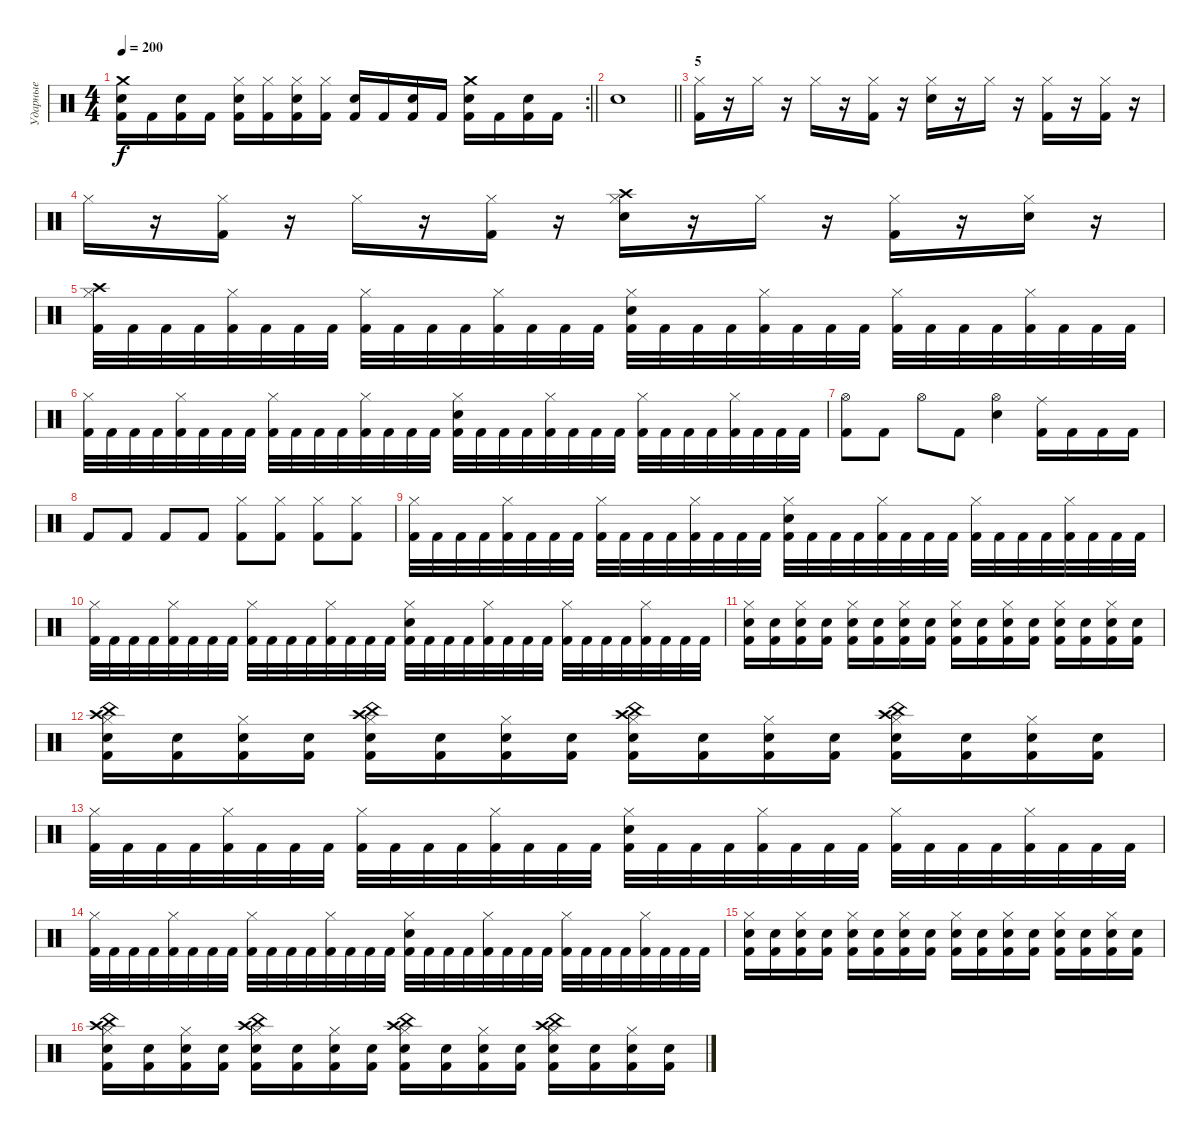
\track ("Ударные" "Ударные") {instrument percussion}
\staff {score}
\articulation defaults
\rc 2
\ts (4 4)
\tempo 200
\clef neutral
\barLineRight lightlight
\ks c
("Crash medium (hit)" "Electric Snare (hit)" "Kick (hit) 2").16{dy f} "Kick (hit) 2".16 ("Electric Snare (hit)" "Kick (hit) 2").16 "Kick (hit) 2".16 ("Hi-Hat (closed)" "Electric Snare (hit)" "Kick (hit) 2").16 ("Hi-Hat (closed)" "Kick (hit) 2").16 ("Hi-Hat (closed)" "Electric Snare (hit)" "Kick (hit) 2").16 ("Hi-Hat (closed)" "Kick (hit) 2").16 ("Electric Snare (hit)" "Kick (hit) 2").16 "Kick (hit) 2".16 ("Electric Snare (hit)" "Kick (hit) 2").16 "Kick (hit) 2".16 ("Crash medium (hit)" "Electric Snare (hit)" "Kick (hit) 2").16 "Kick (hit) 2".16 ("Electric Snare (hit)" "Kick (hit) 2").16 "Kick (hit) 2".16 |
\barLineRight lightlight "Electric Snare (hit)".1
|
\section ("" "5")
("Hi-Hat (closed)" "Kick (hit) 2").16 r.16 "Hi-Hat (closed)".16 r.16 "Hi-Hat (closed)".16 r.16 ("Hi-Hat (closed)" "Kick (hit) 2").16 r.16 ("Hi-Hat (closed)" "Electric Snare (hit)").16 r.16 "Hi-Hat (closed)".16 r.16 ("Hi-Hat (closed)" "Kick (hit) 2").16 r.16 ("Hi-Hat (closed)" "Kick (hit) 2").16 r.16 |
"Hi-Hat (closed)".16 r.16 ("Hi-Hat (closed)" "Kick (hit) 2").16 r.16 "Hi-Hat (closed)".16 r.16 ("Hi-Hat (closed)" "Kick (hit) 2").16 r.16 ("Hi-Hat (closed)" "Crash high (hit)" "Electric Snare (hit)").16 r.16 "Hi-Hat (closed)".16 r.16 ("Hi-Hat (closed)" "Kick (hit) 2").16 r.16 ("Hi-Hat (closed)" "Electric Snare (hit)").16 r.16 |
("Hi-Hat (closed)" "Crash high (hit)" "Kick (hit) 2").32 "Kick (hit) 2".32 "Kick (hit) 2".32 "Kick (hit) 2".32 ("Hi-Hat (closed)" "Kick (hit) 2").32 "Kick (hit) 2".32 "Kick (hit) 2".32 "Kick (hit) 2".32 ("Hi-Hat (closed)" "Kick (hit) 2").32 "Kick (hit) 2".32 "Kick (hit) 2".32 "Kick (hit) 2".32 ("Hi-Hat (closed)" "Kick (hit) 2").32 "Kick (hit) 2".32 "Kick (hit) 2".32 "Kick (hit) 2".32 ("Hi-Hat (closed)" "Electric Snare (hit)" "Kick (hit) 2").32 "Kick (hit) 2".32 "Kick (hit) 2".32 "Kick (hit) 2".32 ("Hi-Hat (closed)" "Kick (hit) 2").32 "Kick (hit) 2".32 "Kick (hit) 2".32 "Kick (hit) 2".32 ("Hi-Hat (closed)" "Kick (hit) 2").32 "Kick (hit) 2".32 "Kick (hit) 2".32 "Kick (hit) 2".32 ("Hi-Hat (closed)" "Kick (hit) 2").32 "Kick (hit) 2".32 "Kick (hit) 2".32 "Kick (hit) 2".32 |
("Hi-Hat (closed)" "Kick (hit) 2").32 "Kick (hit) 2".32 "Kick (hit) 2".32 "Kick (hit) 2".32 ("Hi-Hat (closed)" "Kick (hit) 2").32 "Kick (hit) 2".32 "Kick (hit) 2".32 "Kick (hit) 2".32 ("Hi-Hat (closed)" "Kick (hit) 2").32 "Kick (hit) 2".32 "Kick (hit) 2".32 "Kick (hit) 2".32 ("Hi-Hat (closed)" "Kick (hit) 2").32 "Kick (hit) 2".32 "Kick (hit) 2".32 "Kick (hit) 2".32 ("Hi-Hat (closed)" "Electric Snare (hit)" "Kick (hit) 2").32 "Kick (hit) 2".32 "Kick (hit) 2".32 "Kick (hit) 2".32 ("Hi-Hat (closed)" "Kick (hit) 2").32 "Kick (hit) 2".32 "Kick (hit) 2".32 "Kick (hit) 2".32 ("Hi-Hat (closed)" "Kick (hit) 2").32 "Kick (hit) 2".32 "Kick (hit) 2".32 "Kick (hit) 2".32 ("Hi-Hat (closed)" "Kick (hit) 2").32 "Kick (hit) 2".32 "Kick (hit) 2".32 "Kick (hit) 2".32 |
("Hi-Hat (open)" "Kick (hit) 2").8 "Kick (hit) 2".8 "Hi-Hat (open)".8 "Kick (hit) 2".8 ("Hi-Hat (open)" "Electric Snare (hit)").4 ("Ride (middle)" "Kick (hit) 2").16 "Kick (hit) 2".16 "Kick (hit) 2".16 "Kick (hit) 2".16 |
"Kick (hit) 2".8 "Kick (hit) 2".8 "Kick (hit) 2".8 "Kick (hit) 2".8 ("Hi-Hat (closed)" "Kick (hit) 2").8 ("Hi-Hat (closed)" "Kick (hit) 2").8 ("Hi-Hat (closed)" "Kick (hit) 2").8 ("Hi-Hat (closed)" "Kick (hit) 2").8 |
("Hi-Hat (closed)" "Kick (hit) 2").32 "Kick (hit) 2".32 "Kick (hit) 2".32 "Kick (hit) 2".32 ("Hi-Hat (closed)" "Kick (hit) 2").32 "Kick (hit) 2".32 "Kick (hit) 2".32 "Kick (hit) 2".32 ("Hi-Hat (closed)" "Kick (hit) 2").32 "Kick (hit) 2".32 "Kick (hit) 2".32 "Kick (hit) 2".32 ("Hi-Hat (closed)" "Kick (hit) 2").32 "Kick (hit) 2".32 "Kick (hit) 2".32 "Kick (hit) 2".32 ("Hi-Hat (closed)" "Electric Snare (hit)" "Kick (hit) 2").32 "Kick (hit) 2".32 "Kick (hit) 2".32 "Kick (hit) 2".32 ("Hi-Hat (closed)" "Kick (hit) 2").32 "Kick (hit) 2".32 "Kick (hit) 2".32 "Kick (hit) 2".32 ("Hi-Hat (closed)" "Kick (hit) 2").32 "Kick (hit) 2".32 "Kick (hit) 2".32 "Kick (hit) 2".32 ("Hi-Hat (closed)" "Kick (hit) 2").32 "Kick (hit) 2".32 "Kick (hit) 2".32 "Kick (hit) 2".32 |
("Hi-Hat (closed)" "Kick (hit) 2").32 "Kick (hit) 2".32 "Kick (hit) 2".32 "Kick (hit) 2".32 ("Hi-Hat (closed)" "Kick (hit) 2").32 "Kick (hit) 2".32 "Kick (hit) 2".32 "Kick (hit) 2".32 ("Hi-Hat (closed)" "Kick (hit) 2").32 "Kick (hit) 2".32 "Kick (hit) 2".32 "Kick (hit) 2".32 ("Hi-Hat (closed)" "Kick (hit) 2").32 "Kick (hit) 2".32 "Kick (hit) 2".32 "Kick (hit) 2".32 ("Hi-Hat (closed)" "Electric Snare (hit)" "Kick (hit) 2").32 "Kick (hit) 2".32 "Kick (hit) 2".32 "Kick (hit) 2".32 ("Hi-Hat (closed)" "Kick (hit) 2").32 "Kick (hit) 2".32 "Kick (hit) 2".32 "Kick (hit) 2".32 ("Hi-Hat (closed)" "Kick (hit) 2").32 "Kick (hit) 2".32 "Kick (hit) 2".32 "Kick (hit) 2".32 ("Hi-Hat (closed)" "Kick (hit) 2").32 "Kick (hit) 2".32 "Kick (hit) 2".32 "Kick (hit) 2".32 |
("Hi-Hat (closed)" "Electric Snare (hit)" "Kick (hit) 2").16 ("Electric Snare (hit)" "Kick (hit) 2").16 ("Hi-Hat (closed)" "Electric Snare (hit)" "Kick (hit) 2").16 ("Electric Snare (hit)" "Kick (hit) 2").16 ("Hi-Hat (closed)" "Electric Snare (hit)" "Kick (hit) 2").16 ("Electric Snare (hit)" "Kick (hit) 2").16 ("Hi-Hat (closed)" "Electric Snare (hit)" "Kick (hit) 2").16 ("Electric Snare (hit)" "Kick (hit) 2").16 ("Hi-Hat (closed)" "Electric Snare (hit)" "Kick (hit) 2").16 ("Electric Snare (hit)" "Kick (hit) 2").16 ("Hi-Hat (closed)" "Electric Snare (hit)" "Kick (hit) 2").16 ("Electric Snare (hit)" "Kick (hit) 2").16 ("Hi-Hat (closed)" "Electric Snare (hit)" "Kick (hit) 2").16 ("Electric Snare (hit)" "Kick (hit) 2").16 ("Hi-Hat (closed)" "Electric Snare (hit)" "Kick (hit) 2").16 ("Electric Snare (hit)" "Kick (hit) 2").16 |
("Hi-Hat (closed)" "Crash high (hit)" "Electric Snare (hit)" "China (hit)" "Kick (hit) 2").16 ("Electric Snare (hit)" "Kick (hit) 2").16 ("Hi-Hat (closed)" "Electric Snare (hit)" "Kick (hit) 2").16 ("Electric Snare (hit)" "Kick (hit) 2").16 ("Hi-Hat (closed)" "Crash high (hit)" "Electric Snare (hit)" "China (hit)" "Kick (hit) 2").16 ("Electric Snare (hit)" "Kick (hit) 2").16 ("Hi-Hat (closed)" "Electric Snare (hit)" "Kick (hit) 2").16 ("Electric Snare (hit)" "Kick (hit) 2").16 ("Hi-Hat (closed)" "Crash high (hit)" "Electric Snare (hit)" "China (hit)" "Kick (hit) 2").16 ("Electric Snare (hit)" "Kick (hit) 2").16 ("Hi-Hat (closed)" "Electric Snare (hit)" "Kick (hit) 2").16 ("Electric Snare (hit)" "Kick (hit) 2").16 ("Hi-Hat (closed)" "Crash high (hit)" "Electric Snare (hit)" "China (hit)" "Kick (hit) 2").16 ("Electric Snare (hit)" "Kick (hit) 2").16 ("Hi-Hat (closed)" "Electric Snare (hit)" "Kick (hit) 2").16 ("Electric Snare (hit)" "Kick (hit) 2").16 |
("Hi-Hat (closed)" "Kick (hit) 2").32 "Kick (hit) 2".32 "Kick (hit) 2".32 "Kick (hit) 2".32 ("Hi-Hat (closed)" "Kick (hit) 2").32 "Kick (hit) 2".32 "Kick (hit) 2".32 "Kick (hit) 2".32 ("Hi-Hat (closed)" "Kick (hit) 2").32 "Kick (hit) 2".32 "Kick (hit) 2".32 "Kick (hit) 2".32 ("Hi-Hat (closed)" "Kick (hit) 2").32 "Kick (hit) 2".32 "Kick (hit) 2".32 "Kick (hit) 2".32 ("Hi-Hat (closed)" "Electric Snare (hit)" "Kick (hit) 2").32 "Kick (hit) 2".32 "Kick (hit) 2".32 "Kick (hit) 2".32 ("Hi-Hat (closed)" "Kick (hit) 2").32 "Kick (hit) 2".32 "Kick (hit) 2".32 "Kick (hit) 2".32 ("Hi-Hat (closed)" "Kick (hit) 2").32 "Kick (hit) 2".32 "Kick (hit) 2".32 "Kick (hit) 2".32 ("Hi-Hat (closed)" "Kick (hit) 2").32 "Kick (hit) 2".32 "Kick (hit) 2".32 "Kick (hit) 2".32 |
("Hi-Hat (closed)" "Kick (hit) 2").32 "Kick (hit) 2".32 "Kick (hit) 2".32 "Kick (hit) 2".32 ("Hi-Hat (closed)" "Kick (hit) 2").32 "Kick (hit) 2".32 "Kick (hit) 2".32 "Kick (hit) 2".32 ("Hi-Hat (closed)" "Kick (hit) 2").32 "Kick (hit) 2".32 "Kick (hit) 2".32 "Kick (hit) 2".32 ("Hi-Hat (closed)" "Kick (hit) 2").32 "Kick (hit) 2".32 "Kick (hit) 2".32 "Kick (hit) 2".32 ("Hi-Hat (closed)" "Electric Snare (hit)" "Kick (hit) 2").32 "Kick (hit) 2".32 "Kick (hit) 2".32 "Kick (hit) 2".32 ("Hi-Hat (closed)" "Kick (hit) 2").32 "Kick (hit) 2".32 "Kick (hit) 2".32 "Kick (hit) 2".32 ("Hi-Hat (closed)" "Kick (hit) 2").32 "Kick (hit) 2".32 "Kick (hit) 2".32 "Kick (hit) 2".32 ("Hi-Hat (closed)" "Kick (hit) 2").32 "Kick (hit) 2".32 "Kick (hit) 2".32 "Kick (hit) 2".32 |
("Hi-Hat (closed)" "Electric Snare (hit)" "Kick (hit) 2").16 ("Electric Snare (hit)" "Kick (hit) 2").16 ("Hi-Hat (closed)" "Electric Snare (hit)" "Kick (hit) 2").16 ("Electric Snare (hit)" "Kick (hit) 2").16 ("Hi-Hat (closed)" "Electric Snare (hit)" "Kick (hit) 2").16 ("Electric Snare (hit)" "Kick (hit) 2").16 ("Hi-Hat (closed)" "Electric Snare (hit)" "Kick (hit) 2").16 ("Electric Snare (hit)" "Kick (hit) 2").16 ("Hi-Hat (closed)" "Electric Snare (hit)" "Kick (hit) 2").16 ("Electric Snare (hit)" "Kick (hit) 2").16 ("Hi-Hat (closed)" "Electric Snare (hit)" "Kick (hit) 2").16 ("Electric Snare (hit)" "Kick (hit) 2").16 ("Hi-Hat (closed)" "Electric Snare (hit)" "Kick (hit) 2").16 ("Electric Snare (hit)" "Kick (hit) 2").16 ("Hi-Hat (closed)" "Electric Snare (hit)" "Kick (hit) 2").16 ("Electric Snare (hit)" "Kick (hit) 2").16 |
("Hi-Hat (closed)" "Crash high (hit)" "Electric Snare (hit)" "China (hit)" "Kick (hit) 2").16 ("Electric Snare (hit)" "Kick (hit) 2").16 ("Hi-Hat (closed)" "Electric Snare (hit)" "Kick (hit) 2").16 ("Electric Snare (hit)" "Kick (hit) 2").16 ("Hi-Hat (closed)" "Crash high (hit)" "Electric Snare (hit)" "China (hit)" "Kick (hit) 2").16 ("Electric Snare (hit)" "Kick (hit) 2").16 ("Hi-Hat (closed)" "Electric Snare (hit)" "Kick (hit) 2").16 ("Electric Snare (hit)" "Kick (hit) 2").16 ("Hi-Hat (closed)" "Crash high (hit)" "Electric Snare (hit)" "China (hit)" "Kick (hit) 2").16 ("Electric Snare (hit)" "Kick (hit) 2").16 ("Hi-Hat (closed)" "Electric Snare (hit)" "Kick (hit) 2").16 ("Electric Snare (hit)" "Kick (hit) 2").16 ("Hi-Hat (closed)" "Crash high (hit)" "Electric Snare (hit)" "China (hit)" "Kick (hit) 2").16 ("Electric Snare (hit)" "Kick (hit) 2").16 ("Hi-Hat (closed)" "Electric Snare (hit)" "Kick (hit) 2").16 ("Electric Snare (hit)" "Kick (hit) 2").16
